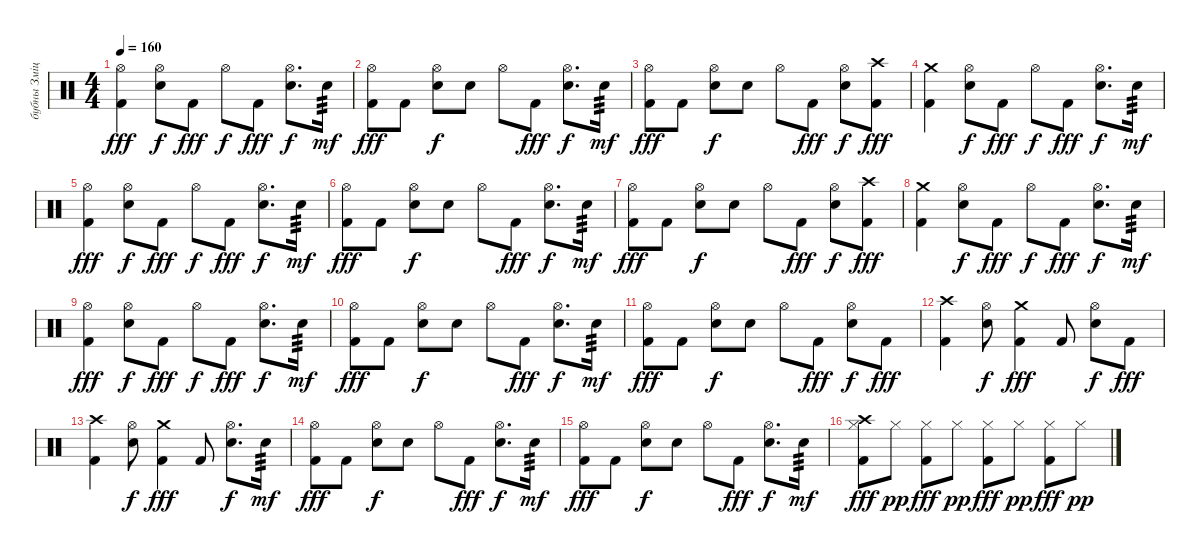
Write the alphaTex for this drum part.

\track ("бубны Змiцер" "бубны Змiц") {instrument percussion}
\staff {score}
\articulation defaults
\ts (4 4)
\tempo 160
\clef neutral
\ks c
("Hi-Hat (open)" "Kick (hit) 2").4{dy fff} ("Hi-Hat (open)" "Electric Snare (hit)").8{dy f} "Kick (hit) 2".8{dy fff} "Hi-Hat (open)".8{dy f} "Kick (hit) 2".8{dy fff} ("Hi-Hat (open)" "Electric Snare (hit)").8{d dy f} "Electric Snare (hit)".16{tp 3 dy mf} |
("Hi-Hat (open)" "Kick (hit) 2").8{dy fff} "Kick (hit) 2".8 ("Hi-Hat (open)" "Electric Snare (hit)").8{dy f} "Electric Snare (hit)".8 "Hi-Hat (open)".8 "Kick (hit) 2".8{dy fff} ("Hi-Hat (open)" "Electric Snare (hit)").8{d dy f} "Electric Snare (hit)".16{tp 3 dy mf} |
("Hi-Hat (open)" "Kick (hit) 2").8{dy fff} "Kick (hit) 2".8 ("Hi-Hat (open)" "Electric Snare (hit)").8{dy f} "Electric Snare (hit)".8 "Hi-Hat (open)".8 "Kick (hit) 2".8{dy fff} ("Hi-Hat (open)" "Electric Snare (hit)").8{dy f} ("Crash high (hit)" "Kick (hit) 2").8{dy fff} |
("Crash medium (hit)" "Kick (hit) 2").4 ("Hi-Hat (open)" "Electric Snare (hit)").8{dy f} "Kick (hit) 2".8{dy fff} "Hi-Hat (open)".8{dy f} "Kick (hit) 2".8{dy fff} ("Hi-Hat (open)" "Electric Snare (hit)").8{d dy f} "Electric Snare (hit)".16{tp 3 dy mf} |
("Hi-Hat (open)" "Kick (hit) 2").4{dy fff} ("Hi-Hat (open)" "Electric Snare (hit)").8{dy f} "Kick (hit) 2".8{dy fff} "Hi-Hat (open)".8{dy f} "Kick (hit) 2".8{dy fff} ("Hi-Hat (open)" "Electric Snare (hit)").8{d dy f} "Electric Snare (hit)".16{tp 3 dy mf} |
("Hi-Hat (open)" "Kick (hit) 2").8{dy fff} "Kick (hit) 2".8 ("Hi-Hat (open)" "Electric Snare (hit)").8{dy f} "Electric Snare (hit)".8 "Hi-Hat (open)".8 "Kick (hit) 2".8{dy fff} ("Hi-Hat (open)" "Electric Snare (hit)").8{d dy f} "Electric Snare (hit)".16{tp 3 dy mf} |
("Hi-Hat (open)" "Kick (hit) 2").8{dy fff} "Kick (hit) 2".8 ("Hi-Hat (open)" "Electric Snare (hit)").8{dy f} "Electric Snare (hit)".8 "Hi-Hat (open)".8 "Kick (hit) 2".8{dy fff} ("Hi-Hat (open)" "Electric Snare (hit)").8{dy f} ("Crash high (hit)" "Kick (hit) 2").8{dy fff} |
("Crash medium (hit)" "Kick (hit) 2").4 ("Hi-Hat (open)" "Electric Snare (hit)").8{dy f} "Kick (hit) 2".8{dy fff} "Hi-Hat (open)".8{dy f} "Kick (hit) 2".8{dy fff} ("Hi-Hat (open)" "Electric Snare (hit)").8{d dy f} "Electric Snare (hit)".16{tp 3 dy mf} |
("Hi-Hat (open)" "Kick (hit) 2").4{dy fff} ("Hi-Hat (open)" "Electric Snare (hit)").8{dy f} "Kick (hit) 2".8{dy fff} "Hi-Hat (open)".8{dy f} "Kick (hit) 2".8{dy fff} ("Hi-Hat (open)" "Electric Snare (hit)").8{d dy f} "Electric Snare (hit)".16{tp 3 dy mf} |
("Hi-Hat (open)" "Kick (hit) 2").8{dy fff} "Kick (hit) 2".8 ("Hi-Hat (open)" "Electric Snare (hit)").8{dy f} "Electric Snare (hit)".8 "Hi-Hat (open)".8 "Kick (hit) 2".8{dy fff} ("Hi-Hat (open)" "Electric Snare (hit)").8{d dy f} "Electric Snare (hit)".16{tp 3 dy mf} |
("Hi-Hat (open)" "Kick (hit) 2").8{dy fff} "Kick (hit) 2".8 ("Hi-Hat (open)" "Electric Snare (hit)").8{dy f} "Electric Snare (hit)".8 "Hi-Hat (open)".8 "Kick (hit) 2".8{dy fff} ("Hi-Hat (open)" "Electric Snare (hit)").8{dy f} "Kick (hit) 2".8{dy fff} |
("Crash high (hit)" "Kick (hit) 2").4 ("Hi-Hat (open)" "Electric Snare (hit)").8{dy f} ("Crash medium (hit)" "Kick (hit) 2").4{dy fff} "Kick (hit) 2".8 ("Hi-Hat (open)" "Electric Snare (hit)").8{dy f} "Kick (hit) 2".8{dy fff} |
("Crash high (hit)" "Kick (hit) 2").4 ("Hi-Hat (open)" "Electric Snare (hit)").8{dy f} ("Crash medium (hit)" "Kick (hit) 2").4{dy fff} "Kick (hit) 2".8 ("Hi-Hat (open)" "Electric Snare (hit)").8{d dy f} "Electric Snare (hit)".16{tp 3 dy mf} |
("Hi-Hat (open)" "Kick (hit) 2").8{dy fff} "Kick (hit) 2".8 ("Hi-Hat (open)" "Electric Snare (hit)").8{dy f} "Electric Snare (hit)".8 "Hi-Hat (open)".8 "Kick (hit) 2".8{dy fff} ("Hi-Hat (open)" "Electric Snare (hit)").8{d dy f} "Electric Snare (hit)".16{tp 3 dy mf} |
("Hi-Hat (open)" "Kick (hit) 2").8{dy fff} "Kick (hit) 2".8 ("Hi-Hat (open)" "Electric Snare (hit)").8{dy f} "Electric Snare (hit)".8 "Hi-Hat (open)".8 "Kick (hit) 2".8{dy fff} ("Hi-Hat (open)" "Electric Snare (hit)").8{d dy f} "Electric Snare (hit)".16{tp 3 dy mf} |
("Crash high (hit)" "Hi-Hat (closed)" "Kick (hit) 2").8{dy fff} "Hi-Hat (closed)".8{dy pp} ("Hi-Hat (closed)" "Kick (hit) 2").8{dy fff} "Hi-Hat (closed)".8{dy pp} ("Hi-Hat (closed)" "Kick (hit) 2").8{dy fff} "Hi-Hat (closed)".8{dy pp} ("Hi-Hat (closed)" "Kick (hit) 2").8{dy fff} "Hi-Hat (closed)".8{dy pp}
